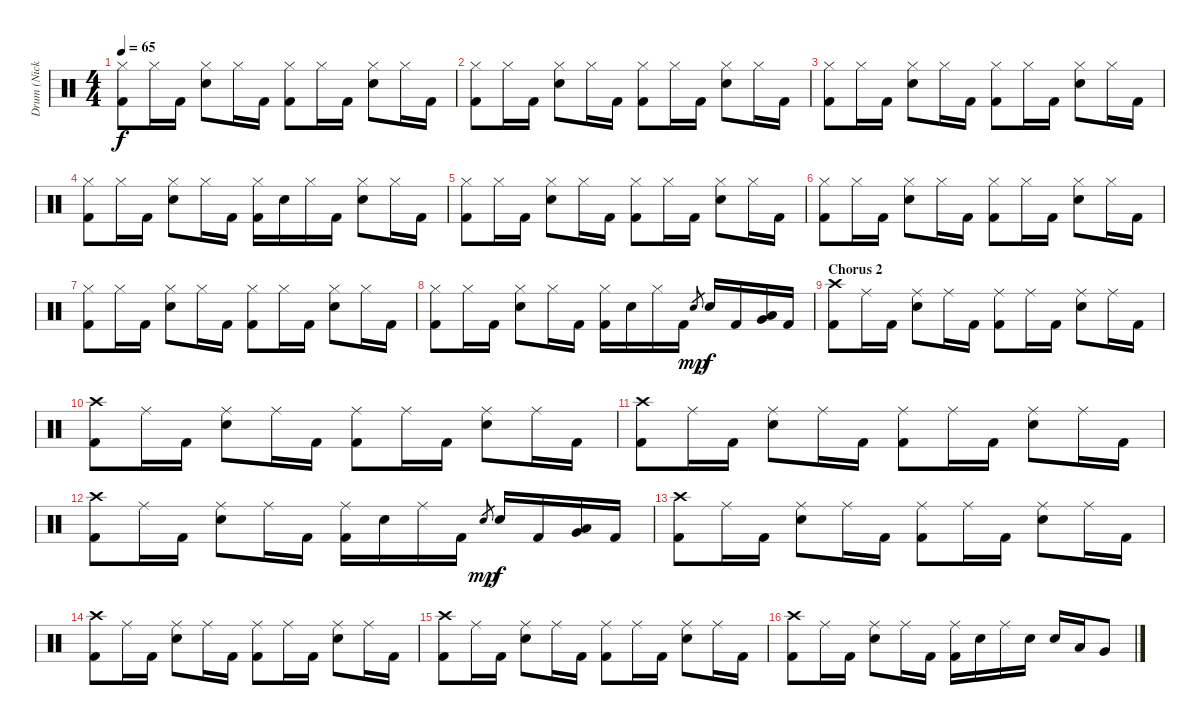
\track ("Drum (Nick Oshiro)" "Drum (Nick") {instrument percussion}
\staff {score}
\articulation defaults
\ts (4 4)
\tempo 65
\clef neutral
\ks c
("Hi-Hat (closed)" "Kick (hit) 2").8{dy f} "Hi-Hat (closed)".16 "Kick (hit) 2".16 ("Hi-Hat (closed)" "Electric Snare (hit)").8 "Hi-Hat (closed)".16 "Kick (hit) 2".16 ("Hi-Hat (closed)" "Kick (hit) 2").8 "Hi-Hat (closed)".16 "Kick (hit) 2".16 ("Hi-Hat (closed)" "Electric Snare (hit)").8 "Hi-Hat (closed)".16 "Kick (hit) 2".16 |
("Hi-Hat (closed)" "Kick (hit) 2").8 "Hi-Hat (closed)".16 "Kick (hit) 2".16 ("Hi-Hat (closed)" "Electric Snare (hit)").8 "Hi-Hat (closed)".16 "Kick (hit) 2".16 ("Hi-Hat (closed)" "Kick (hit) 2").8 "Hi-Hat (closed)".16 "Kick (hit) 2".16 ("Hi-Hat (closed)" "Electric Snare (hit)").8 "Hi-Hat (closed)".16 "Kick (hit) 2".16 |
("Hi-Hat (closed)" "Kick (hit) 2").8 "Hi-Hat (closed)".16 "Kick (hit) 2".16 ("Hi-Hat (closed)" "Electric Snare (hit)").8 "Hi-Hat (closed)".16 "Kick (hit) 2".16 ("Hi-Hat (closed)" "Kick (hit) 2").8 "Hi-Hat (closed)".16 "Kick (hit) 2".16 ("Hi-Hat (closed)" "Electric Snare (hit)").8 "Hi-Hat (closed)".16 "Kick (hit) 2".16 |
("Hi-Hat (closed)" "Kick (hit) 2").8 "Hi-Hat (closed)".16 "Kick (hit) 2".16 ("Hi-Hat (closed)" "Electric Snare (hit)").8 "Hi-Hat (closed)".16 "Kick (hit) 2".16 ("Hi-Hat (closed)" "Kick (hit) 2").16 "Electric Snare (hit)".16 "Hi-Hat (closed)".16 "Kick (hit) 2".16 ("Hi-Hat (closed)" "Electric Snare (hit)").8 "Hi-Hat (closed)".16 "Kick (hit) 2".16 |
("Hi-Hat (closed)" "Kick (hit) 2").8 "Hi-Hat (closed)".16 "Kick (hit) 2".16 ("Hi-Hat (closed)" "Electric Snare (hit)").8 "Hi-Hat (closed)".16 "Kick (hit) 2".16 ("Hi-Hat (closed)" "Kick (hit) 2").8 "Hi-Hat (closed)".16 "Kick (hit) 2".16 ("Hi-Hat (closed)" "Electric Snare (hit)").8 "Hi-Hat (closed)".16 "Kick (hit) 2".16 |
("Hi-Hat (closed)" "Kick (hit) 2").8 "Hi-Hat (closed)".16 "Kick (hit) 2".16 ("Hi-Hat (closed)" "Electric Snare (hit)").8 "Hi-Hat (closed)".16 "Kick (hit) 2".16 ("Hi-Hat (closed)" "Kick (hit) 2").8 "Hi-Hat (closed)".16 "Kick (hit) 2".16 ("Hi-Hat (closed)" "Electric Snare (hit)").8 "Hi-Hat (closed)".16 "Kick (hit) 2".16 |
("Hi-Hat (closed)" "Kick (hit) 2").8 "Hi-Hat (closed)".16 "Kick (hit) 2".16 ("Hi-Hat (closed)" "Electric Snare (hit)").8 "Hi-Hat (closed)".16 "Kick (hit) 2".16 ("Hi-Hat (closed)" "Kick (hit) 2").8 "Hi-Hat (closed)".16 "Kick (hit) 2".16 ("Hi-Hat (closed)" "Electric Snare (hit)").8 "Hi-Hat (closed)".16 "Kick (hit) 2".16 |
("Hi-Hat (closed)" "Kick (hit) 2").8 "Hi-Hat (closed)".16 "Kick (hit) 2".16 ("Hi-Hat (closed)" "Electric Snare (hit)").8 "Hi-Hat (closed)".16 "Kick (hit) 2".16 ("Hi-Hat (closed)" "Kick (hit) 2").16 "Electric Snare (hit)".16 "Hi-Hat (closed)".16 "Kick (hit) 2".16 "Electric Snare (hit)".8{gr dy mp} "Electric Snare (hit)".16{dy f} "Kick (hit) 2".16 ("Very Low Tom (hit)" "Low Tom (hit)").16 "Kick (hit) 2".16 |
\section ("" "Chorus 2")
("Crash high (hit)" "Kick (hit) 2").8 "Ride (middle)".16 "Kick (hit) 2".16 ("Ride (middle)" "Electric Snare (hit)").8 "Ride (middle)".16 "Kick (hit) 2".16 ("Ride (middle)" "Kick (hit) 2").8 "Ride (middle)".16 "Kick (hit) 2".16 ("Ride (middle)" "Electric Snare (hit)").8 "Ride (middle)".16 "Kick (hit) 2".16 |
("Crash high (hit)" "Kick (hit) 2").8 "Ride (middle)".16 "Kick (hit) 2".16 ("Ride (middle)" "Electric Snare (hit)").8 "Ride (middle)".16 "Kick (hit) 2".16 ("Ride (middle)" "Kick (hit) 2").8 "Ride (middle)".16 "Kick (hit) 2".16 ("Ride (middle)" "Electric Snare (hit)").8 "Ride (middle)".16 "Kick (hit) 2".16 |
("Crash high (hit)" "Kick (hit) 2").8 "Ride (middle)".16 "Kick (hit) 2".16 ("Ride (middle)" "Electric Snare (hit)").8 "Ride (middle)".16 "Kick (hit) 2".16 ("Ride (middle)" "Kick (hit) 2").8 "Ride (middle)".16 "Kick (hit) 2".16 ("Ride (middle)" "Electric Snare (hit)").8 "Ride (middle)".16 "Kick (hit) 2".16 |
("Crash high (hit)" "Kick (hit) 2").8 "Ride (middle)".16 "Kick (hit) 2".16 ("Ride (middle)" "Electric Snare (hit)").8 "Ride (middle)".16 "Kick (hit) 2".16 ("Ride (middle)" "Kick (hit) 2").16 "Electric Snare (hit)".16 "Ride (middle)".16 "Kick (hit) 2".16 "Electric Snare (hit)".8{gr dy mp} "Electric Snare (hit)".16{dy f} "Kick (hit) 2".16 ("Very Low Tom (hit)" "Low Tom (hit)").16 "Kick (hit) 2".16 |
("Crash high (hit)" "Kick (hit) 2").8 "Ride (middle)".16 "Kick (hit) 2".16 ("Ride (middle)" "Electric Snare (hit)").8 "Ride (middle)".16 "Kick (hit) 2".16 ("Ride (middle)" "Kick (hit) 2").8 "Ride (middle)".16 "Kick (hit) 2".16 ("Ride (middle)" "Electric Snare (hit)").8 "Ride (middle)".16 "Kick (hit) 2".16 |
("Crash high (hit)" "Kick (hit) 2").8 "Ride (middle)".16 "Kick (hit) 2".16 ("Ride (middle)" "Electric Snare (hit)").8 "Ride (middle)".16 "Kick (hit) 2".16 ("Ride (middle)" "Kick (hit) 2").8 "Ride (middle)".16 "Kick (hit) 2".16 ("Ride (middle)" "Electric Snare (hit)").8 "Ride (middle)".16 "Kick (hit) 2".16 |
("Crash high (hit)" "Kick (hit) 2").8 "Ride (middle)".16 "Kick (hit) 2".16 ("Ride (middle)" "Electric Snare (hit)").8 "Ride (middle)".16 "Kick (hit) 2".16 ("Ride (middle)" "Kick (hit) 2").8 "Ride (middle)".16 "Kick (hit) 2".16 ("Ride (middle)" "Electric Snare (hit)").8 "Ride (middle)".16 "Kick (hit) 2".16 |
("Crash high (hit)" "Kick (hit) 2").8 "Ride (middle)".16 "Kick (hit) 2".16 ("Ride (middle)" "Electric Snare (hit)").8 "Ride (middle)".16 "Kick (hit) 2".16 ("Ride (middle)" "Kick (hit) 2").16 "Electric Snare (hit)".16 "Ride (middle)".16 "Electric Snare (hit)".16 "Electric Snare (hit)".16 "Low Tom (hit)".16 "Very Low Tom (hit)".8
